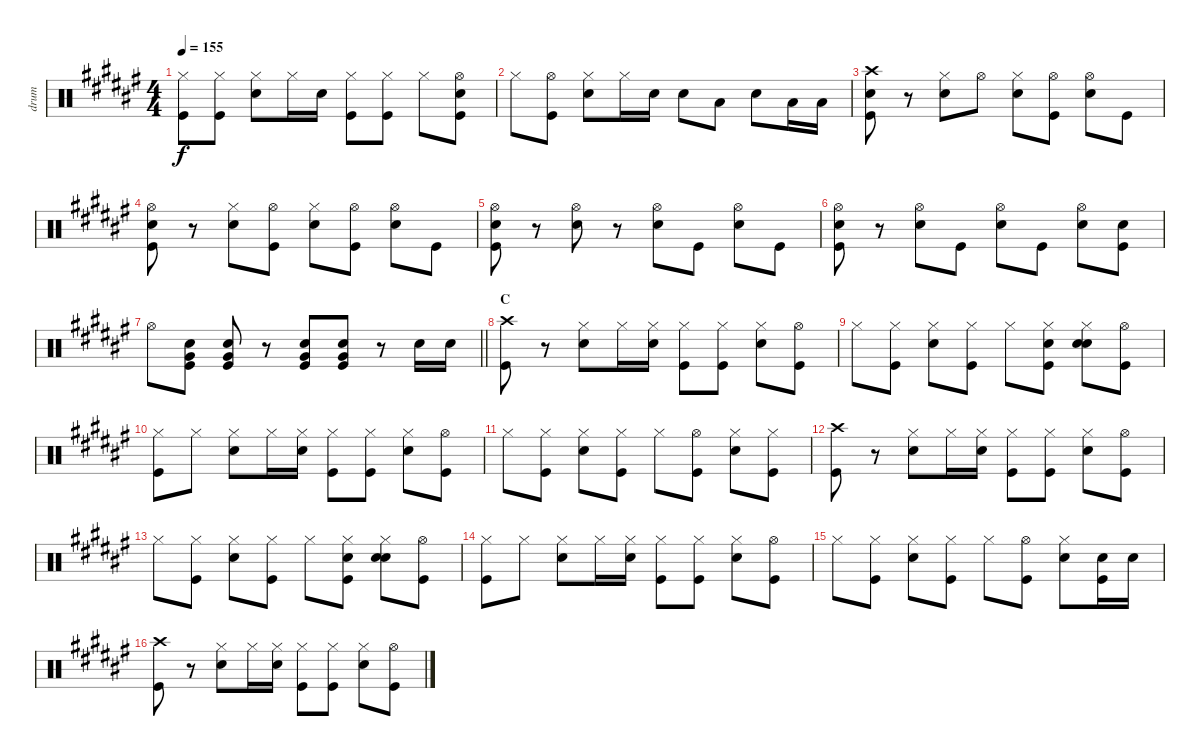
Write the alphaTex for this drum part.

\track ("drum" "drum") {instrument percussion}
\staff {score}
\articulation defaults
\ts (4 4)
\tempo 155
\clef neutral
\ks f#
("Hi-Hat (closed)" "Kick (hit)").8{dy f} ("Hi-Hat (closed)" "Kick (hit)").8 ("Hi-Hat (closed)" "Snare (hit) 2").8 "Hi-Hat (closed)".16 "Snare (hit) 2".16 ("Hi-Hat (closed)" "Kick (hit)").8 ("Hi-Hat (closed)" "Kick (hit)").8 "Hi-Hat (closed)".8 ("Hi-Hat (open)" "Snare (hit) 2" "Kick (hit)").8 |
"Hi-Hat (closed)".8 ("Hi-Hat (open)" "Kick (hit)").8 ("Hi-Hat (closed)" "Snare (hit) 2").8 "Hi-Hat (closed)".16 "Snare (hit) 2".16 "Snare (hit) 2".8 "Low Tom (hit)".8 "Snare (hit) 2".8 "Low Tom (hit)".16 "Low Tom (hit)".16 |
("Crash high (hit)" "Snare (hit) 2" "Kick (hit)").8 r.8 ("Hi-Hat (closed)" "Snare (hit) 2").8 "Hi-Hat (open)".8 ("Hi-Hat (closed)" "Snare (hit) 2").8 ("Hi-Hat (open)" "Kick (hit)").8 ("Hi-Hat (open)" "Snare (hit) 2").8 "Kick (hit)".8 |
("Hi-Hat (open)" "Snare (hit) 2" "Kick (hit)").8 r.8 ("Hi-Hat (closed)" "Snare (hit) 2").8 ("Hi-Hat (open)" "Kick (hit)").8 ("Hi-Hat (closed)" "Snare (hit) 2").8 ("Hi-Hat (open)" "Kick (hit)").8 ("Hi-Hat (open)" "Snare (hit) 2").8 "Kick (hit)".8 |
("Hi-Hat (open)" "Snare (hit) 2" "Kick (hit)").8 r.8 ("Hi-Hat (open)" "Snare (hit) 2").8 r.8 ("Hi-Hat (open)" "Snare (hit) 2").8 "Kick (hit)".8 ("Hi-Hat (open)" "Snare (hit) 2").8 "Kick (hit)".8 |
("Hi-Hat (open)" "Snare (hit) 2" "Kick (hit)").8 r.8 ("Hi-Hat (open)" "Snare (hit) 2").8 "Kick (hit)".8 ("Hi-Hat (open)" "Snare (hit) 2").8 "Kick (hit)".8 ("Hi-Hat (open)" "Snare (hit) 2").8 ("Snare (hit) 2" "Kick (hit)").8 |
\barLineRight lightlight "Hi-Hat (open)".8
("Snare (hit) 2" "Very Low Tom (hit)" "Kick (hit)").8 ("Snare (hit) 2" "Very Low Tom (hit)" "Kick (hit)").8 r.8 ("Snare (hit) 2" "Very Low Tom (hit)" "Kick (hit)").8 ("Snare (hit) 2" "Very Low Tom (hit)" "Kick (hit)").8 r.8 "Snare (hit) 2".16 "Snare (hit) 2".16 |
\section ("" "C")
("Crash high (hit)" "Kick (hit)").8 r.8 ("Hi-Hat (closed)" "Snare (hit) 2").8 "Hi-Hat (closed)".16 ("Hi-Hat (closed)" "Snare (hit) 2").16 ("Hi-Hat (closed)" "Kick (hit)").8 ("Hi-Hat (closed)" "Kick (hit)").8 ("Hi-Hat (closed)" "Snare (hit) 2").8 ("Hi-Hat (open)" "Kick (hit)").8 |
"Hi-Hat (closed)".8 ("Hi-Hat (closed)" "Kick (hit)").8 ("Hi-Hat (closed)" "Snare (hit) 2").8 ("Hi-Hat (closed)" "Kick (hit)").8 "Hi-Hat (closed)".8 ("Hi-Hat (closed)" "Hand Clap (hit)" "Kick (hit)").8 ("Hi-Hat (closed)" "Snare (hit) 2" "Hand Clap (hit)").8 ("Hi-Hat (open)" "Kick (hit)").8 |
("Hi-Hat (closed)" "Kick (hit)").8 "Hi-Hat (closed)".8 ("Hi-Hat (closed)" "Snare (hit) 2").8 "Hi-Hat (closed)".16 ("Hi-Hat (closed)" "Snare (hit) 2").16 ("Hi-Hat (closed)" "Kick (hit)").8 ("Hi-Hat (closed)" "Kick (hit)").8 ("Hi-Hat (closed)" "Snare (hit) 2").8 ("Hi-Hat (open)" "Kick (hit)").8 |
"Hi-Hat (closed)".8 ("Hi-Hat (closed)" "Kick (hit)").8 ("Hi-Hat (closed)" "Snare (hit) 2").8 ("Hi-Hat (closed)" "Kick (hit)").8 "Hi-Hat (closed)".8 ("Hi-Hat (open)" "Kick (hit)").8 ("Hi-Hat (closed)" "Snare (hit) 2").8 ("Hi-Hat (closed)" "Kick (hit)").8 |
("Crash high (hit)" "Kick (hit)").8 r.8 ("Hi-Hat (closed)" "Snare (hit) 2").8 "Hi-Hat (closed)".16 ("Hi-Hat (closed)" "Snare (hit) 2").16 ("Hi-Hat (closed)" "Kick (hit)").8 ("Hi-Hat (closed)" "Kick (hit)").8 ("Hi-Hat (closed)" "Snare (hit) 2").8 ("Hi-Hat (open)" "Kick (hit)").8 |
"Hi-Hat (closed)".8 ("Hi-Hat (closed)" "Kick (hit)").8 ("Hi-Hat (closed)" "Snare (hit) 2").8 ("Hi-Hat (closed)" "Kick (hit)").8 "Hi-Hat (closed)".8 ("Hi-Hat (closed)" "Hand Clap (hit)" "Kick (hit)").8 ("Hi-Hat (closed)" "Snare (hit) 2" "Hand Clap (hit)").8 ("Hi-Hat (open)" "Kick (hit)").8 |
("Hi-Hat (closed)" "Kick (hit)").8 "Hi-Hat (closed)".8 ("Hi-Hat (closed)" "Snare (hit) 2").8 "Hi-Hat (closed)".16 ("Hi-Hat (closed)" "Snare (hit) 2").16 ("Hi-Hat (closed)" "Kick (hit)").8 ("Hi-Hat (closed)" "Kick (hit)").8 ("Hi-Hat (closed)" "Snare (hit) 2").8 ("Hi-Hat (open)" "Kick (hit)").8 |
"Hi-Hat (closed)".8 ("Hi-Hat (closed)" "Kick (hit)").8 ("Hi-Hat (closed)" "Snare (hit) 2").8 ("Hi-Hat (closed)" "Kick (hit)").8 "Hi-Hat (closed)".8 ("Hi-Hat (open)" "Kick (hit)").8 ("Hi-Hat (closed)" "Snare (hit) 2").8 ("Snare (hit) 2" "Kick (hit)").16 "Snare (hit) 2".16 |
("Crash high (hit)" "Kick (hit)").8 r.8 ("Hi-Hat (closed)" "Snare (hit) 2").8 "Hi-Hat (closed)".16 ("Hi-Hat (closed)" "Snare (hit) 2").16 ("Hi-Hat (closed)" "Kick (hit)").8 ("Hi-Hat (closed)" "Kick (hit)").8 ("Hi-Hat (closed)" "Snare (hit) 2").8 ("Hi-Hat (open)" "Kick (hit)").8
